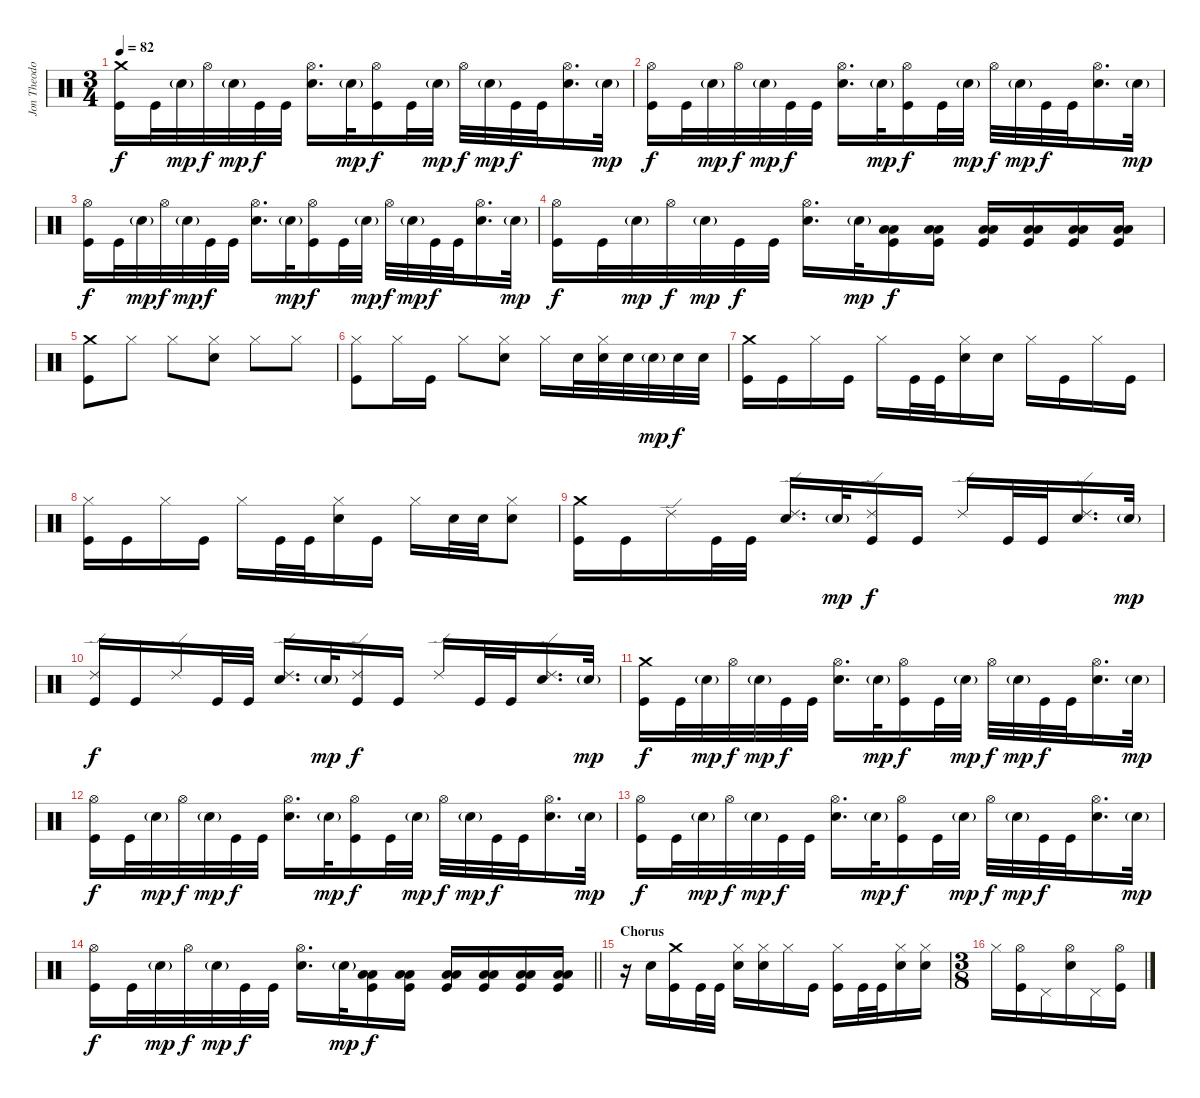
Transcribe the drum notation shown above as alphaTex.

\track ("Jon Theodore" "Jon Theodo") {instrument percussion}
\staff {score}
\articulation defaults
\ts (3 4)
\tempo 82
\clef neutral
\ks c
("Crash medium (hit)" "Kick (hit)").16{dy f} "Kick (hit)".32 "Snare (hit) 2"{g}.32{dy mp} "Hi-Hat (open)".32{dy f} "Snare (hit) 2"{g}.32{dy mp} "Kick (hit)".32{dy f} "Kick (hit)".32 ("Hi-Hat (open)" "Snare (hit) 2").16{d} "Snare (hit) 2"{g}.32{dy mp} ("Hi-Hat (open)" "Kick (hit)").16{dy f} "Kick (hit)".32 "Snare (hit) 2"{g}.32{dy mp} "Hi-Hat (open)".32{dy f} "Snare (hit) 2"{g}.32{dy mp} "Kick (hit)".32{dy f} "Kick (hit)".32 ("Hi-Hat (open)" "Snare (hit) 2").16{d} "Snare (hit) 2"{g}.32{dy mp} |
("Hi-Hat (open)" "Kick (hit)").16{dy f} "Kick (hit)".32 "Snare (hit) 2"{g}.32{dy mp} "Hi-Hat (open)".32{dy f} "Snare (hit) 2"{g}.32{dy mp} "Kick (hit)".32{dy f} "Kick (hit)".32 ("Hi-Hat (open)" "Snare (hit) 2").16{d} "Snare (hit) 2"{g}.32{dy mp} ("Hi-Hat (open)" "Kick (hit)").16{dy f} "Kick (hit)".32 "Snare (hit) 2"{g}.32{dy mp} "Hi-Hat (open)".32{dy f} "Snare (hit) 2"{g}.32{dy mp} "Kick (hit)".32{dy f} "Kick (hit)".32 ("Hi-Hat (open)" "Snare (hit) 2").16{d} "Snare (hit) 2"{g}.32{dy mp} |
("Hi-Hat (open)" "Kick (hit)").16{dy f} "Kick (hit)".32 "Snare (hit) 2"{g}.32{dy mp} "Hi-Hat (open)".32{dy f} "Snare (hit) 2"{g}.32{dy mp} "Kick (hit)".32{dy f} "Kick (hit)".32 ("Hi-Hat (open)" "Snare (hit) 2").16{d} "Snare (hit) 2"{g}.32{dy mp} ("Hi-Hat (open)" "Kick (hit)").16{dy f} "Kick (hit)".32 "Snare (hit) 2"{g}.32{dy mp} "Hi-Hat (open)".32{dy f} "Snare (hit) 2"{g}.32{dy mp} "Kick (hit)".32{dy f} "Kick (hit)".32 ("Hi-Hat (open)" "Snare (hit) 2").16{d} "Snare (hit) 2"{g}.32{dy mp} |
("Hi-Hat (open)" "Kick (hit)").16{dy f} "Kick (hit)".32 "Snare (hit) 2"{g}.32{dy mp} "Hi-Hat (open)".32{dy f} "Snare (hit) 2"{g}.32{dy mp} "Kick (hit)".32{dy f} "Kick (hit)".32 ("Hi-Hat (open)" "Snare (hit) 2").16{d} "Snare (hit) 2"{g}.32{dy mp} ("Low Tom (hit)" "Low Floor Tom (hit)" "Kick (hit)").16{dy f} ("Low Tom (hit)" "Low Floor Tom (hit)" "Kick (hit)").16 ("Low Tom (hit)" "Low Floor Tom (hit)" "Kick (hit)").16 ("Low Tom (hit)" "Low Floor Tom (hit)" "Kick (hit)").16 ("Low Tom (hit)" "Low Floor Tom (hit)" "Kick (hit)").16 ("Low Tom (hit)" "Low Floor Tom (hit)" "Kick (hit)").16 |
("Crash medium (hit)" "Kick (hit)").8 "Hi-Hat (closed)".8 "Hi-Hat (closed)".8 ("Hi-Hat (closed)" "Snare (hit) 2").8 "Hi-Hat (closed)".8 "Hi-Hat (closed)".8 |
("Hi-Hat (closed)" "Kick (hit)").8 "Hi-Hat (closed)".16 "Kick (hit)".16 "Hi-Hat (closed)".8 ("Hi-Hat (closed)" "Snare (hit) 2").8 "Hi-Hat (closed)".16 "Snare (hit) 2".32 ("Hi-Hat (closed)" "Snare (hit) 2").32 "Snare (hit) 2".32 "Snare (hit) 2"{g}.32{dy mp} "Snare (hit) 2".32{dy f} "Snare (hit) 2".32 |
("Crash medium (hit)" "Kick (hit)").16 "Kick (hit)".16 "Hi-Hat (closed)".16 "Kick (hit)".16 "Hi-Hat (closed)".16 "Kick (hit)".32 "Kick (hit)".32 ("Hi-Hat (closed)" "Snare (hit) 2").16 "Snare (hit) 2".16 "Hi-Hat (closed)".16 "Kick (hit)".16 "Hi-Hat (closed)".16 "Kick (hit)".16 |
("Hi-Hat (closed)" "Kick (hit)").16 "Kick (hit)".16 "Hi-Hat (closed)".16 "Kick (hit)".16 "Hi-Hat (closed)".16 "Kick (hit)".32 "Kick (hit)".32 ("Hi-Hat (closed)" "Snare (hit) 2").16 "Kick (hit)".16 "Hi-Hat (closed)".16 "Snare (hit) 2".32 "Snare (hit) 2".32 ("Hi-Hat (closed)" "Snare (hit) 2").8 |
("Crash medium (hit)" "Kick (hit)").16 "Kick (hit)".16 "Ride (edge) 2".16 "Kick (hit)".32 "Kick (hit)".32 ("Ride (edge) 2" "Snare (hit) 2").16{d} "Snare (hit) 2"{g}.32{dy mp} ("Ride (edge) 2" "Kick (hit)").16{dy f} "Kick (hit)".16 "Ride (edge) 2".16 "Kick (hit)".32 "Kick (hit)".32 ("Ride (edge) 2" "Snare (hit) 2").16{d} "Snare (hit) 2"{g}.32{dy mp} |
("Ride (edge) 2" "Kick (hit)").16{dy f} "Kick (hit)".16 "Ride (edge) 2".16 "Kick (hit)".32 "Kick (hit)".32 ("Ride (edge) 2" "Snare (hit) 2").16{d} "Snare (hit) 2"{g}.32{dy mp} ("Ride (edge) 2" "Kick (hit)").16{dy f} "Kick (hit)".16 "Ride (edge) 2".16 "Kick (hit)".32 "Kick (hit)".32 ("Ride (edge) 2" "Snare (hit) 2").16{d} "Snare (hit) 2"{g}.32{dy mp} |
("Crash medium (hit)" "Kick (hit)").16{dy f} "Kick (hit)".32 "Snare (hit) 2"{g}.32{dy mp} "Hi-Hat (open)".32{dy f} "Snare (hit) 2"{g}.32{dy mp} "Kick (hit)".32{dy f} "Kick (hit)".32 ("Hi-Hat (open)" "Snare (hit) 2").16{d} "Snare (hit) 2"{g}.32{dy mp} ("Hi-Hat (open)" "Kick (hit)").16{dy f} "Kick (hit)".32 "Snare (hit) 2"{g}.32{dy mp} "Hi-Hat (open)".32{dy f} "Snare (hit) 2"{g}.32{dy mp} "Kick (hit)".32{dy f} "Kick (hit)".32 ("Hi-Hat (open)" "Snare (hit) 2").16{d} "Snare (hit) 2"{g}.32{dy mp} |
("Hi-Hat (open)" "Kick (hit)").16{dy f} "Kick (hit)".32 "Snare (hit) 2"{g}.32{dy mp} "Hi-Hat (open)".32{dy f} "Snare (hit) 2"{g}.32{dy mp} "Kick (hit)".32{dy f} "Kick (hit)".32 ("Hi-Hat (open)" "Snare (hit) 2").16{d} "Snare (hit) 2"{g}.32{dy mp} ("Hi-Hat (open)" "Kick (hit)").16{dy f} "Kick (hit)".32 "Snare (hit) 2"{g}.32{dy mp} "Hi-Hat (open)".32{dy f} "Snare (hit) 2"{g}.32{dy mp} "Kick (hit)".32{dy f} "Kick (hit)".32 ("Hi-Hat (open)" "Snare (hit) 2").16{d} "Snare (hit) 2"{g}.32{dy mp} |
("Hi-Hat (open)" "Kick (hit)").16{dy f} "Kick (hit)".32 "Snare (hit) 2"{g}.32{dy mp} "Hi-Hat (open)".32{dy f} "Snare (hit) 2"{g}.32{dy mp} "Kick (hit)".32{dy f} "Kick (hit)".32 ("Hi-Hat (open)" "Snare (hit) 2").16{d} "Snare (hit) 2"{g}.32{dy mp} ("Hi-Hat (open)" "Kick (hit)").16{dy f} "Kick (hit)".32 "Snare (hit) 2"{g}.32{dy mp} "Hi-Hat (open)".32{dy f} "Snare (hit) 2"{g}.32{dy mp} "Kick (hit)".32{dy f} "Kick (hit)".32 ("Hi-Hat (open)" "Snare (hit) 2").16{d} "Snare (hit) 2"{g}.32{dy mp} |
\barLineRight lightlight
("Hi-Hat (open)" "Kick (hit)").16{dy f} "Kick (hit)".32 "Snare (hit) 2"{g}.32{dy mp} "Hi-Hat (open)".32{dy f} "Snare (hit) 2"{g}.32{dy mp} "Kick (hit)".32{dy f} "Kick (hit)".32 ("Hi-Hat (open)" "Snare (hit) 2").16{d} "Snare (hit) 2"{g}.32{dy mp} ("Low Tom (hit)" "Low Floor Tom (hit)" "Kick (hit)").16{dy f} ("Low Tom (hit)" "Low Floor Tom (hit)" "Kick (hit)").16 ("Low Tom (hit)" "Low Floor Tom (hit)" "Kick (hit)").16 ("Low Tom (hit)" "Low Floor Tom (hit)" "Kick (hit)").16 ("Low Tom (hit)" "Low Floor Tom (hit)" "Kick (hit)").16 ("Low Tom (hit)" "Low Floor Tom (hit)" "Kick (hit)").16 |
\section ("" "Chorus")
r.16 "Snare (hit) 2".16 ("Crash medium (hit)" "Kick (hit)").16 "Kick (hit)".32 "Kick (hit)".32 ("Hi-Hat (closed)" "Snare (hit) 2").16 ("Hi-Hat (closed)" "Snare (hit) 2").16 "Hi-Hat (closed)".16 "Kick (hit)".16 ("Hi-Hat (closed)" "Kick (hit)").16 "Kick (hit)".32 "Kick (hit)".32 ("Hi-Hat (closed)" "Snare (hit) 2").16 ("Hi-Hat (closed)" "Snare (hit) 2").16 |
\ts (3 8)
"Hi-Hat (closed)".16 ("Hi-Hat (open)" "Kick (hit)").16 "Pedal Hi-Hat (hit)".16 ("Hi-Hat (open)" "Snare (hit) 2").16 "Pedal Hi-Hat (hit)".16 ("Hi-Hat (open)" "Kick (hit)").16
